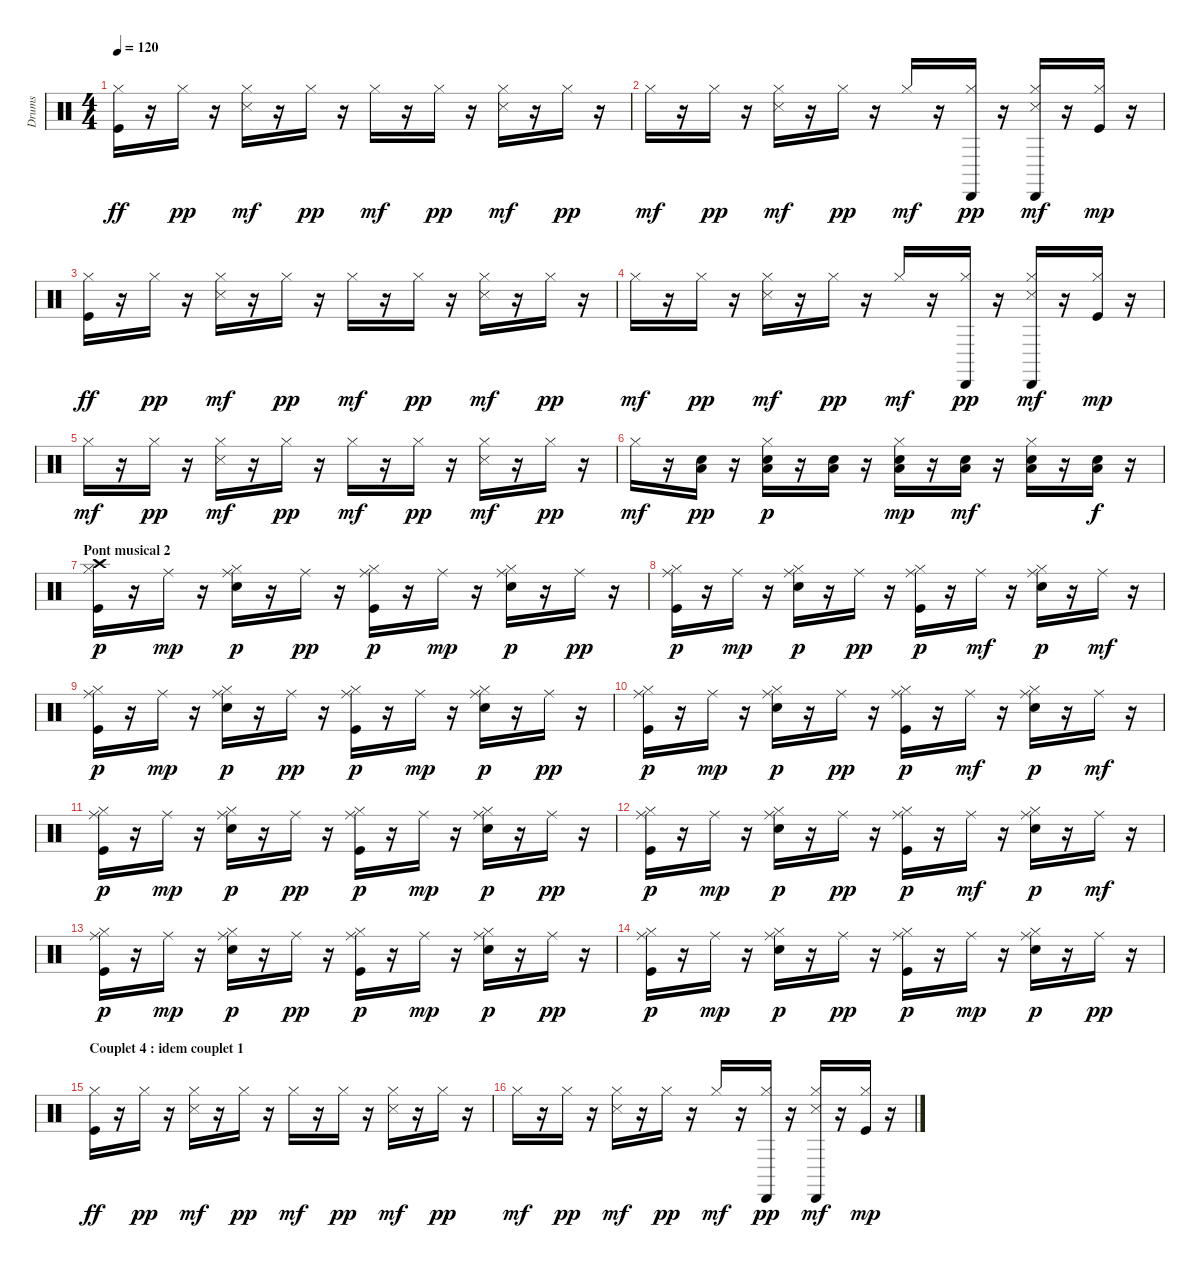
\track ("Drums" "Drums") {instrument percussion}
\staff {score}
\articulation defaults
\ts (4 4)
\tempo 120
\clef neutral
\ks c
("Hi-Hat (closed)" "Kick (hit)").16{dy ff} r.16 "Hi-Hat (closed)".16{dy pp} r.16 ("Snare (side stick) 3" "Hi-Hat (closed)").16{dy mf} r.16 "Hi-Hat (closed)".16{dy pp} r.16 "Hi-Hat (closed)".16{dy mf} r.16 "Hi-Hat (closed)".16{dy pp} r.16 ("Snare (side stick) 3" "Hi-Hat (closed)").16{dy mf} r.16 "Hi-Hat (closed)".16{dy pp} r.16 |
"Hi-Hat (closed)".16{dy mf} r.16 "Hi-Hat (closed)".16{dy pp} r.16 ("Snare (side stick) 3" "Hi-Hat (closed)").16{dy mf} r.16 "Hi-Hat (closed)".16{dy pp} r.16 "Hi-Hat (closed)".16{dy mf} r.16 ("Cabasa (hit)" "Hi-Hat (closed)").16{dy pp} r.16 ("Cabasa (hit)" "Snare (side stick) 3" "Hi-Hat (closed)").16{dy mf} r.16 ("Hi-Hat (closed)" "Kick (hit)").16{dy mp} r.16 |
("Hi-Hat (closed)" "Kick (hit)").16{dy ff} r.16 "Hi-Hat (closed)".16{dy pp} r.16 ("Snare (side stick) 3" "Hi-Hat (closed)").16{dy mf} r.16 "Hi-Hat (closed)".16{dy pp} r.16 "Hi-Hat (closed)".16{dy mf} r.16 "Hi-Hat (closed)".16{dy pp} r.16 ("Snare (side stick) 3" "Hi-Hat (closed)").16{dy mf} r.16 "Hi-Hat (closed)".16{dy pp} r.16 |
"Hi-Hat (closed)".16{dy mf} r.16 "Hi-Hat (closed)".16{dy pp} r.16 ("Snare (side stick) 3" "Hi-Hat (closed)").16{dy mf} r.16 "Hi-Hat (closed)".16{dy pp} r.16 "Hi-Hat (closed)".16{dy mf} r.16 ("Cabasa (hit)" "Hi-Hat (closed)").16{dy pp} r.16 ("Cabasa (hit)" "Snare (side stick) 3" "Hi-Hat (closed)").16{dy mf} r.16 ("Hi-Hat (closed)" "Kick (hit)").16{dy mp} r.16 |
"Hi-Hat (closed)".16{dy mf} r.16 "Hi-Hat (closed)".16{dy pp} r.16 ("Snare (side stick) 3" "Hi-Hat (closed)").16{dy mf} r.16 "Hi-Hat (closed)".16{dy pp} r.16 "Hi-Hat (closed)".16{dy mf} r.16 "Hi-Hat (closed)".16{dy pp} r.16 ("Snare (side stick) 3" "Hi-Hat (closed)").16{dy mf} r.16 "Hi-Hat (closed)".16{dy pp} r.16 |
"Hi-Hat (closed)".16{dy mf} r.16 ("Low Floor Tom (hit)" "Electric Snare (hit)").16{dy pp} r.16 ("Low Floor Tom (hit)" "Hi-Hat (closed)" "Electric Snare (hit)").16{dy p} r.16 ("Low Floor Tom (hit)" "Electric Snare (hit)").16 r.16 ("Low Floor Tom (hit)" "Hi-Hat (closed)" "Electric Snare (hit)").16{dy mp} r.16 ("Low Floor Tom (hit)" "Electric Snare (hit)").16{dy mf} r.16 ("Low Floor Tom (hit)" "Hi-Hat (closed)" "Electric Snare (hit)").16 r.16 ("Low Floor Tom (hit)" "Electric Snare (hit)").16{dy f} r.16 |
\section ("" "Pont musical 2")
("Crash high (hit)" "Hi-Hat (closed)" "Kick (hit)").16{dy p} r.16 "Ride (middle)".16{dy mp} r.16 ("Ride (middle)" "Hi-Hat (closed)" "Electric Snare (hit)").16{dy p} r.16 "Ride (middle)".16{dy pp} r.16 ("Ride (middle)" "Hi-Hat (closed)" "Kick (hit)").16{dy p} r.16 "Ride (middle)".16{dy mp} r.16 ("Ride (middle)" "Hi-Hat (closed)" "Electric Snare (hit)").16{dy p} r.16 "Ride (middle)".16{dy pp} r.16 |
("Ride (middle)" "Hi-Hat (closed)" "Kick (hit)").16{dy p} r.16 "Ride (middle)".16{dy mp} r.16 ("Ride (middle)" "Hi-Hat (closed)" "Electric Snare (hit)").16{dy p} r.16 "Ride (middle)".16{dy pp} r.16 ("Ride (middle)" "Hi-Hat (closed)" "Kick (hit)").16{dy p} r.16 "Ride (middle)".16{dy mf} r.16 ("Ride (middle)" "Hi-Hat (closed)" "Electric Snare (hit)").16{dy p} r.16 "Ride (middle)".16{dy mf} r.16 |
("Ride (middle)" "Hi-Hat (closed)" "Kick (hit)").16{dy p} r.16 "Ride (middle)".16{dy mp} r.16 ("Ride (middle)" "Hi-Hat (closed)" "Electric Snare (hit)").16{dy p} r.16 "Ride (middle)".16{dy pp} r.16 ("Ride (middle)" "Hi-Hat (closed)" "Kick (hit)").16{dy p} r.16 "Ride (middle)".16{dy mp} r.16 ("Ride (middle)" "Hi-Hat (closed)" "Electric Snare (hit)").16{dy p} r.16 "Ride (middle)".16{dy pp} r.16 |
("Ride (middle)" "Hi-Hat (closed)" "Kick (hit)").16{dy p} r.16 "Ride (middle)".16{dy mp} r.16 ("Ride (middle)" "Hi-Hat (closed)" "Electric Snare (hit)").16{dy p} r.16 "Ride (middle)".16{dy pp} r.16 ("Ride (middle)" "Hi-Hat (closed)" "Kick (hit)").16{dy p} r.16 "Ride (middle)".16{dy mf} r.16 ("Ride (middle)" "Hi-Hat (closed)" "Electric Snare (hit)").16{dy p} r.16 "Ride (middle)".16{dy mf} r.16 |
("Ride (middle)" "Hi-Hat (closed)" "Kick (hit)").16{dy p} r.16 "Ride (middle)".16{dy mp} r.16 ("Ride (middle)" "Hi-Hat (closed)" "Electric Snare (hit)").16{dy p} r.16 "Ride (middle)".16{dy pp} r.16 ("Ride (middle)" "Hi-Hat (closed)" "Kick (hit)").16{dy p} r.16 "Ride (middle)".16{dy mp} r.16 ("Ride (middle)" "Hi-Hat (closed)" "Electric Snare (hit)").16{dy p} r.16 "Ride (middle)".16{dy pp} r.16 |
("Ride (middle)" "Hi-Hat (closed)" "Kick (hit)").16{dy p} r.16 "Ride (middle)".16{dy mp} r.16 ("Ride (middle)" "Hi-Hat (closed)" "Electric Snare (hit)").16{dy p} r.16 "Ride (middle)".16{dy pp} r.16 ("Ride (middle)" "Hi-Hat (closed)" "Kick (hit)").16{dy p} r.16 "Ride (middle)".16{dy mf} r.16 ("Ride (middle)" "Hi-Hat (closed)" "Electric Snare (hit)").16{dy p} r.16 "Ride (middle)".16{dy mf} r.16 |
("Ride (middle)" "Hi-Hat (closed)" "Kick (hit)").16{dy p} r.16 "Ride (middle)".16{dy mp} r.16 ("Ride (middle)" "Hi-Hat (closed)" "Electric Snare (hit)").16{dy p} r.16 "Ride (middle)".16{dy pp} r.16 ("Ride (middle)" "Hi-Hat (closed)" "Kick (hit)").16{dy p} r.16 "Ride (middle)".16{dy mp} r.16 ("Ride (middle)" "Hi-Hat (closed)" "Electric Snare (hit)").16{dy p} r.16 "Ride (middle)".16{dy pp} r.16 |
("Ride (middle)" "Hi-Hat (closed)" "Kick (hit)").16{dy p} r.16 "Ride (middle)".16{dy mp} r.16 ("Ride (middle)" "Hi-Hat (closed)" "Electric Snare (hit)").16{dy p} r.16 "Ride (middle)".16{dy pp} r.16 ("Ride (middle)" "Hi-Hat (closed)" "Kick (hit)").16{dy p} r.16 "Ride (middle)".16{dy mp} r.16 ("Ride (middle)" "Hi-Hat (closed)" "Electric Snare (hit)").16{dy p} r.16 "Ride (middle)".16{dy pp} r.16 |
\section ("" "Couplet 4 : idem couplet 1")
("Hi-Hat (closed)" "Kick (hit)").16{dy ff} r.16 "Hi-Hat (closed)".16{dy pp} r.16 ("Snare (side stick) 3" "Hi-Hat (closed)").16{dy mf} r.16 "Hi-Hat (closed)".16{dy pp} r.16 "Hi-Hat (closed)".16{dy mf} r.16 "Hi-Hat (closed)".16{dy pp} r.16 ("Snare (side stick) 3" "Hi-Hat (closed)").16{dy mf} r.16 "Hi-Hat (closed)".16{dy pp} r.16 |
"Hi-Hat (closed)".16{dy mf} r.16 "Hi-Hat (closed)".16{dy pp} r.16 ("Snare (side stick) 3" "Hi-Hat (closed)").16{dy mf} r.16 "Hi-Hat (closed)".16{dy pp} r.16 "Hi-Hat (closed)".16{dy mf} r.16 ("Cabasa (hit)" "Hi-Hat (closed)").16{dy pp} r.16 ("Cabasa (hit)" "Snare (side stick) 3" "Hi-Hat (closed)").16{dy mf} r.16 ("Hi-Hat (closed)" "Kick (hit)").16{dy mp} r.16
